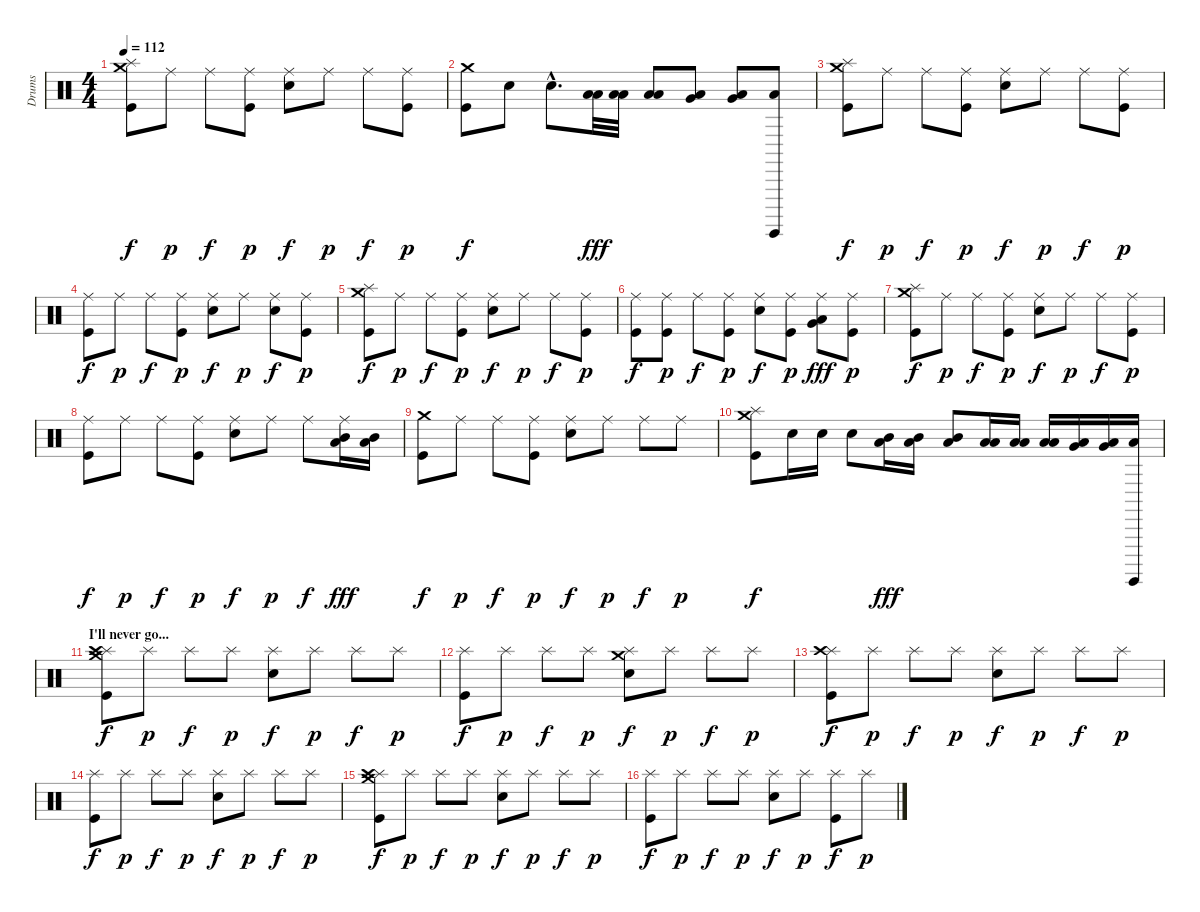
\track ("Drums" "Drums") {instrument percussion}
\staff {score}
\articulation defaults
\ts (4 4)
\tempo 112
\clef neutral
\ks c
("Crash medium (hit)" "Splash (hit)" "Kick (hit)").8{dy f} "Ride (middle)".8{dy p} "Ride (middle)".8{dy f} ("Ride (middle)" "Kick (hit)").8{dy p} ("Ride (middle)" "Electric Snare (hit)").8{dy f} "Ride (middle)".8{dy p} "Ride (middle)".8{dy f} ("Ride (middle)" "Kick (hit)").8{dy p} |
("Crash medium (hit)" "Kick (hit)").8{dy f} "Electric Snare (hit)".8 "Electric Snare (hit)"{hac}.8{d} ("Low Floor Tom (hit)" "Low Tom (hit)").32{dy fff} ("Low Floor Tom (hit)" "Low Tom (hit)").32 ("Low Floor Tom (hit)" "Low Tom (hit)").8 ("Low Floor Tom (hit)" "Very Low Tom (hit)").8 ("Low Floor Tom (hit)" "Very Low Tom (hit)").8 ("Surdo (hit)" "Low Floor Tom (hit)").8 |
("Crash medium (hit)" "Splash (hit)" "Kick (hit)").8{dy f} "Ride (middle)".8{dy p} "Ride (middle)".8{dy f} ("Ride (middle)" "Kick (hit)").8{dy p} ("Ride (middle)" "Electric Snare (hit)").8{dy f} "Ride (middle)".8{dy p} "Ride (middle)".8{dy f} ("Ride (middle)" "Kick (hit)").8{dy p} |
("Ride (middle)" "Kick (hit)").8{dy f} "Ride (middle)".8{dy p} "Ride (middle)".8{dy f} ("Ride (middle)" "Kick (hit)").8{dy p} ("Ride (middle)" "Electric Snare (hit)").8{dy f} "Ride (middle)".8{dy p} ("Ride (middle)" "Electric Snare (hit)").8{dy f} ("Ride (middle)" "Kick (hit)").8{dy p} |
("Crash medium (hit)" "Splash (hit)" "Kick (hit)").8{dy f} "Ride (middle)".8{dy p} "Ride (middle)".8{dy f} ("Ride (middle)" "Kick (hit)").8{dy p} ("Ride (middle)" "Electric Snare (hit)").8{dy f} "Ride (middle)".8{dy p} "Ride (middle)".8{dy f} ("Ride (middle)" "Kick (hit)").8{dy p} |
("Ride (middle)" "Kick (hit)").8{dy f} ("Ride (middle)" "Kick (hit)").8{dy p} "Ride (middle)".8{dy f} ("Ride (middle)" "Kick (hit)").8{dy p} ("Ride (middle)" "Electric Snare (hit)").8{dy f} ("Ride (middle)" "Kick (hit)").8{dy p} ("Ride (middle)" "Low Floor Tom (hit)" "Very Low Tom (hit)").8{dy fff} ("Ride (middle)" "Kick (hit)").8{dy p} |
("Crash medium (hit)" "Splash (hit)" "Kick (hit)").8{dy f} "Ride (middle)".8{dy p} "Ride (middle)".8{dy f} ("Ride (middle)" "Kick (hit)").8{dy p} ("Ride (middle)" "Electric Snare (hit)").8{dy f} "Ride (middle)".8{dy p} "Ride (middle)".8{dy f} ("Ride (middle)" "Kick (hit)").8{dy p} |
("Ride (middle)" "Kick (hit)").8{dy f} "Ride (middle)".8{dy p} "Ride (middle)".8{dy f} ("Ride (middle)" "Kick (hit)").8{dy p} ("Ride (middle)" "Electric Snare (hit)").8{dy f} "Ride (middle)".8{dy p} "Ride (middle)".8{dy f} ("Ride (middle)" "Low Floor Tom (hit)" "Mid Tom (hit)").16{dy fff} ("Low Floor Tom (hit)" "Mid Tom (hit)").16 |
("Crash medium (hit)" "Kick (hit)").8{dy f} "Ride (middle)".8{dy p} "Ride (middle)".8{dy f} ("Ride (middle)" "Kick (hit)").8{dy p} ("Ride (middle)" "Electric Snare (hit)").8{dy f} "Ride (middle)".8{dy p} "Ride (middle)".8{dy f} "Ride (middle)".8{dy p} |
("Crash medium (hit)" "Splash (hit)" "Kick (hit)").8{dy f} "Electric Snare (hit)".16 "Electric Snare (hit)".16 "Electric Snare (hit)".8 ("Low Floor Tom (hit)" "Mid Tom (hit)").16{dy fff} ("Low Floor Tom (hit)" "Mid Tom (hit)").16 ("Low Floor Tom (hit)" "Mid Tom (hit)").8 ("Low Floor Tom (hit)" "Low Tom (hit)").16 ("Low Floor Tom (hit)" "Low Tom (hit)").16 ("Low Floor Tom (hit)" "Low Tom (hit)").16 ("Low Floor Tom (hit)" "Very Low Tom (hit)").16 ("Low Floor Tom (hit)" "Very Low Tom (hit)").16 ("Surdo (hit)" "Low Floor Tom (hit)").16 |
\section ("" "I'll never go...")
("Crash medium (hit)" "Splash (hit)" "Crash high (hit)" "Kick (hit)").8{dy f} "Splash (hit)".8{dy p} "Splash (hit)".8{dy f} "Splash (hit)".8{dy p} ("Splash (hit)" "Electric Snare (hit)").8{dy f} "Splash (hit)".8{dy p} "Splash (hit)".8{dy f} "Splash (hit)".8{dy p} |
("Splash (hit)" "Kick (hit)").8{dy f} "Splash (hit)".8{dy p} "Splash (hit)".8{dy f} "Splash (hit)".8{dy p} ("Crash medium (hit)" "Splash (hit)" "Electric Snare (hit)").8{dy f} "Splash (hit)".8{dy p} "Splash (hit)".8{dy f} "Splash (hit)".8{dy p} |
("Splash (hit)" "Crash high (hit)" "Kick (hit)").8{dy f} "Splash (hit)".8{dy p} "Splash (hit)".8{dy f} "Splash (hit)".8{dy p} ("Splash (hit)" "Electric Snare (hit)").8{dy f} "Splash (hit)".8{dy p} "Splash (hit)".8{dy f} "Splash (hit)".8{dy p} |
("Splash (hit)" "Kick (hit)").8{dy f} "Splash (hit)".8{dy p} "Splash (hit)".8{dy f} "Splash (hit)".8{dy p} ("Splash (hit)" "Electric Snare (hit)").8{dy f} "Splash (hit)".8{dy p} "Splash (hit)".8{dy f} "Splash (hit)".8{dy p} |
("Crash medium (hit)" "Splash (hit)" "Crash high (hit)" "Kick (hit)").8{dy f} "Splash (hit)".8{dy p} "Splash (hit)".8{dy f} "Splash (hit)".8{dy p} ("Splash (hit)" "Electric Snare (hit)").8{dy f} "Splash (hit)".8{dy p} "Splash (hit)".8{dy f} "Splash (hit)".8{dy p} |
("Splash (hit)" "Kick (hit)").8{dy f} "Splash (hit)".8{dy p} "Splash (hit)".8{dy f} "Splash (hit)".8{dy p} ("Splash (hit)" "Electric Snare (hit)").8{dy f} "Splash (hit)".8{dy p} ("Splash (hit)" "Kick (hit)").8{dy f} "Splash (hit)".8{dy p}
